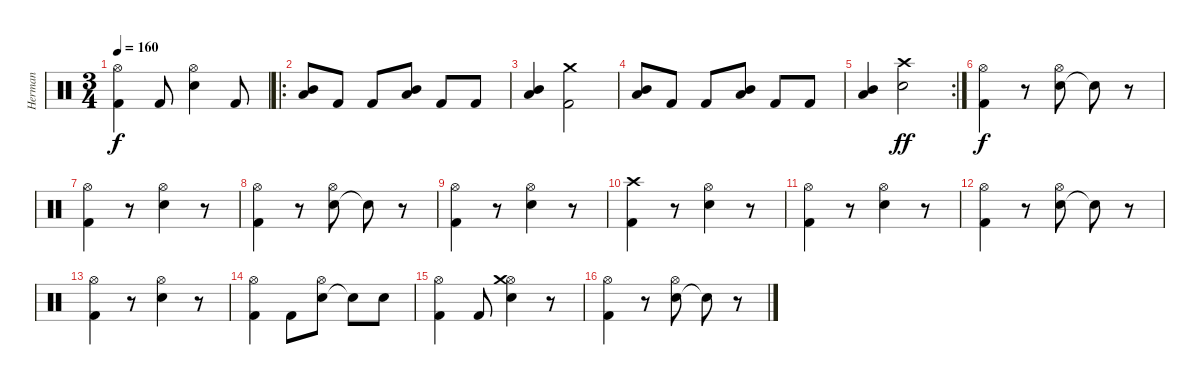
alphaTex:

\track ("Herman" "Herman") {instrument percussion}
\staff {score}
\articulation defaults
\ts (3 4)
\tempo 160
\clef neutral
\ks c
("Kick (hit) 2" "Hi-Hat (open)").4{dy f} "Kick (hit) 2".8 ("Electric Snare (hit)" "Hi-Hat (open)").4 "Kick (hit) 2".8 |
\ro
("Low Tom (hit)" "Mid Tom (hit)").8 "Kick (hit) 2".8 "Kick (hit) 2".8 ("Low Tom (hit)" "Mid Tom (hit)").8 "Kick (hit) 2".8 "Kick (hit) 2".8 |
("Low Tom (hit)" "Mid Tom (hit)").4 ("Crash medium (hit)" "Kick (hit) 2").2 |
("Low Tom (hit)" "Mid Tom (hit)").8 "Kick (hit) 2".8 "Kick (hit) 2".8 ("Low Tom (hit)" "Mid Tom (hit)").8 "Kick (hit) 2".8 "Kick (hit) 2".8 |
\rc 2
("Low Tom (hit)" "Mid Tom (hit)").4 ("Crash high (hit)" "Electric Snare (hit)").2{dy ff} |
("Kick (hit) 2" "Hi-Hat (open)").4{dy f} r.8 ("Electric Snare (hit)" "Hi-Hat (open)").8 "Snare (hit)"{t}.8 r.8 |
("Kick (hit) 2" "Hi-Hat (open)").4 r.8 ("Electric Snare (hit)" "Hi-Hat (open)").4 r.8 |
("Kick (hit) 2" "Hi-Hat (open)").4 r.8 ("Electric Snare (hit)" "Hi-Hat (open)").8 "Snare (hit)"{t}.8 r.8 |
("Kick (hit) 2" "Hi-Hat (open)").4 r.8 ("Electric Snare (hit)" "Hi-Hat (open)").4 r.8 |
("Kick (hit) 2" "Crash high (hit)").4 r.8 ("Electric Snare (hit)" "Hi-Hat (open)").4 r.8 |
("Kick (hit) 2" "Hi-Hat (open)").4 r.8 ("Electric Snare (hit)" "Hi-Hat (open)").4 r.8 |
("Kick (hit) 2" "Hi-Hat (open)").4 r.8 ("Electric Snare (hit)" "Hi-Hat (open)").8 "Snare (hit)"{t}.8 r.8 |
("Kick (hit) 2" "Hi-Hat (open)").4 r.8 ("Electric Snare (hit)" "Hi-Hat (open)").4 r.8 |
("Kick (hit) 2" "Hi-Hat (open)").4 "Kick (hit) 2".8 ("Electric Snare (hit)" "Hi-Hat (open)").8 "Snare (hit)"{t}.8 "Electric Snare (hit)".8 |
("Kick (hit) 2" "Hi-Hat (open)").4 "Kick (hit) 2".8 ("Electric Snare (hit)" "Hi-Hat (open)" "Crash medium (hit)").4 r.8 |
("Kick (hit) 2" "Hi-Hat (open)").4 r.8 ("Electric Snare (hit)" "Hi-Hat (open)").8 "Snare (hit)"{t}.8 r.8
